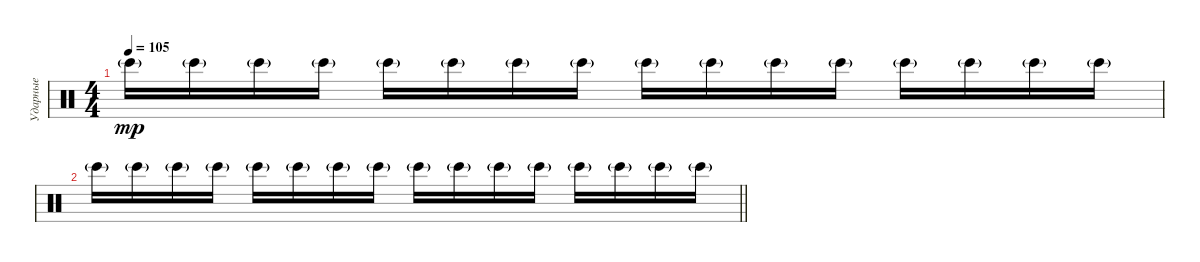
\track ("Ударные" "Ударные") {instrument percussion}
\staff {score}
\articulation defaults
\ts (4 4)
\tempo 105
\clef neutral
\ks c "Bongo High (hit)"{g}.16{dy mp} "Bongo High (hit)"{g}.16 "Bongo High (hit)"{g}.16 "Bongo High (hit)"{g}.16 "Bongo High (hit)"{g}.16 "Bongo High (hit)"{g}.16 "Bongo High (hit)"{g}.16 "Bongo High (hit)"{g}.16 "Bongo High (hit)"{g}.16 "Bongo High (hit)"{g}.16 "Bongo High (hit)"{g}.16 "Bongo High (hit)"{g}.16 "Bongo High (hit)"{g}.16 "Bongo High (hit)"{g}.16 "Bongo High (hit)"{g}.16 "Bongo High (hit)"{g}.16
|
\barLineRight lightlight "Bongo High (hit)"{g}.16 "Bongo High (hit)"{g}.16 "Bongo High (hit)"{g}.16 "Bongo High (hit)"{g}.16 "Bongo High (hit)"{g}.16 "Bongo High (hit)"{g}.16 "Bongo High (hit)"{g}.16 "Bongo High (hit)"{g}.16 "Bongo High (hit)"{g}.16 "Bongo High (hit)"{g}.16 "Bongo High (hit)"{g}.16 "Bongo High (hit)"{g}.16 "Bongo High (hit)"{g}.16 "Bongo High (hit)"{g}.16 "Bongo High (hit)"{g}.16 "Bongo High (hit)"{g}.16
